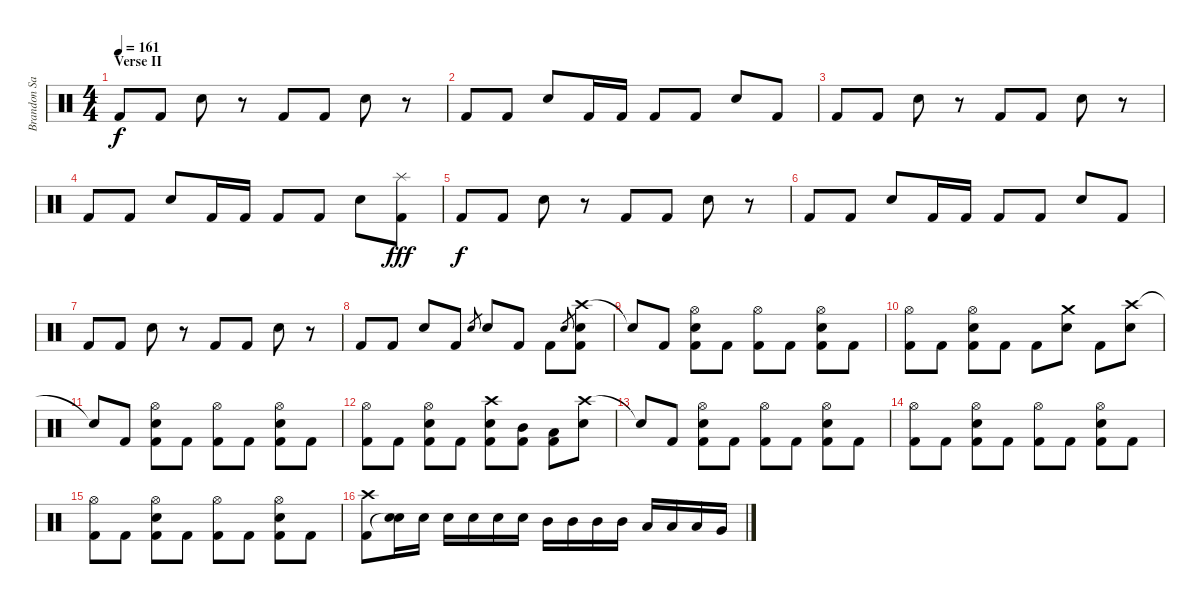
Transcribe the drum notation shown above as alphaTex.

\track ("Brandon Saller" "Brandon Sa") {instrument percussion}
\staff {score}
\articulation defaults
\ts (4 4)
\section ("" "Verse II")
\tempo 161
\clef neutral
\ks c "Kick (hit) 2".8{dy f} "Kick (hit) 2".8 "Electric Snare (hit)".8
r.8 "Kick (hit) 2".8 "Kick (hit) 2".8 "Electric Snare (hit)".8 r.8 |
"Kick (hit) 2".8 "Kick (hit) 2".8 "Electric Snare (hit)".8 "Kick (hit) 2".16 "Kick (hit) 2".16 "Kick (hit) 2".8 "Kick (hit) 2".8 "Electric Snare (hit)".8 "Kick (hit) 2".8 |
"Kick (hit) 2".8 "Kick (hit) 2".8 "Electric Snare (hit)".8 r.8 "Kick (hit) 2".8 "Kick (hit) 2".8 "Electric Snare (hit)".8 r.8 |
"Kick (hit) 2".8 "Kick (hit) 2".8 "Electric Snare (hit)".8 "Kick (hit) 2".16 "Kick (hit) 2".16 "Kick (hit) 2".8 "Kick (hit) 2".8 "Electric Snare (hit)".8 ("Splash (hit)" "Kick (hit) 2").8{dy fff} |
"Kick (hit) 2".8{dy f} "Kick (hit) 2".8 "Electric Snare (hit)".8 r.8 "Kick (hit) 2".8 "Kick (hit) 2".8 "Electric Snare (hit)".8 r.8 |
"Kick (hit) 2".8 "Kick (hit) 2".8 "Electric Snare (hit)".8 "Kick (hit) 2".16 "Kick (hit) 2".16 "Kick (hit) 2".8 "Kick (hit) 2".8 "Electric Snare (hit)".8 "Kick (hit) 2".8 |
"Kick (hit) 2".8 "Kick (hit) 2".8 "Electric Snare (hit)".8 r.8 "Kick (hit) 2".8 "Kick (hit) 2".8 "Electric Snare (hit)".8 r.8 |
"Kick (hit) 2".8 "Kick (hit) 2".8 "Electric Snare (hit)".8 "Kick (hit) 2".8 "Electric Snare (hit)".8{gr} "Electric Snare (hit)".8 "Kick (hit) 2".8 "Kick (hit) 2".8 "Electric Snare (hit)".8{gr} ("Crash high (hit)" "Electric Snare (hit)" "Kick (hit) 2").8 |
"Snare (hit)"{t}.8 "Kick (hit) 2".8 ("Hi-Hat (open)" "Electric Snare (hit)" "Kick (hit) 2").8 "Kick (hit) 2".8 ("Hi-Hat (open)" "Kick (hit) 2").8 "Kick (hit) 2".8 ("Hi-Hat (open)" "Electric Snare (hit)" "Kick (hit) 2").8 "Kick (hit) 2".8 |
("Hi-Hat (open)" "Kick (hit) 2").8 "Kick (hit) 2".8 ("Hi-Hat (open)" "Electric Snare (hit)" "Kick (hit) 2").8 "Kick (hit) 2".8 "Kick (hit) 2".8 ("Crash medium (hit)" "Electric Snare (hit)").8 "Kick (hit) 2".8 ("Crash high (hit)" "Electric Snare (hit)").8 |
"Snare (hit)"{t}.8 "Kick (hit) 2".8 ("Hi-Hat (open)" "Electric Snare (hit)" "Kick (hit) 2").8 "Kick (hit) 2".8 ("Hi-Hat (open)" "Kick (hit) 2").8 "Kick (hit) 2".8 ("Hi-Hat (open)" "Electric Snare (hit)" "Kick (hit) 2").8 "Kick (hit) 2".8 |
("Hi-Hat (open)" "Kick (hit) 2").8 "Kick (hit) 2".8 ("Hi-Hat (open)" "Electric Snare (hit)" "Kick (hit) 2").8 "Kick (hit) 2".8 ("Crash high (hit)" "Electric Snare (hit)" "Kick (hit) 2").8 ("Mid Tom (hit)" "Kick (hit) 2").8 ("Low Tom (hit)" "Kick (hit) 2").8 ("Crash high (hit)" "Electric Snare (hit)").8 |
"Snare (hit)"{t}.8 "Kick (hit) 2".8 ("Hi-Hat (open)" "Electric Snare (hit)" "Kick (hit) 2").8 "Kick (hit) 2".8 ("Hi-Hat (open)" "Kick (hit) 2").8 "Kick (hit) 2".8 ("Hi-Hat (open)" "Electric Snare (hit)" "Kick (hit) 2").8 "Kick (hit) 2".8 |
("Hi-Hat (open)" "Kick (hit) 2").8 "Kick (hit) 2".8 ("Hi-Hat (open)" "Electric Snare (hit)" "Kick (hit) 2").8 "Kick (hit) 2".8 ("Hi-Hat (open)" "Kick (hit) 2").8 "Kick (hit) 2".8 ("Hi-Hat (open)" "Electric Snare (hit)" "Kick (hit) 2").8 "Kick (hit) 2".8 |
("Hi-Hat (open)" "Kick (hit) 2").8 "Kick (hit) 2".8 ("Hi-Hat (open)" "Electric Snare (hit)" "Kick (hit) 2").8 "Kick (hit) 2".8 ("Hi-Hat (open)" "Kick (hit) 2").8 "Kick (hit) 2".8 ("Hi-Hat (open)" "Electric Snare (hit)" "Kick (hit) 2").8 "Kick (hit) 2".8 |
("Crash high (hit)" "Kick (hit) 2").8 ("Electric Snare (hit)" "Snare (hit)"{t}).16 "Electric Snare (hit)".16 "Electric Snare (hit)".16 "Electric Snare (hit)".16 "Electric Snare (hit)".16 "Electric Snare (hit)".16 "Mid Tom (hit)".16 "Mid Tom (hit)".16 "Mid Tom (hit)".16 "Mid Tom (hit)".16 "Low Tom (hit)".16 "Low Tom (hit)".16 "Low Tom (hit)".16 "Very Low Tom (hit)".16
